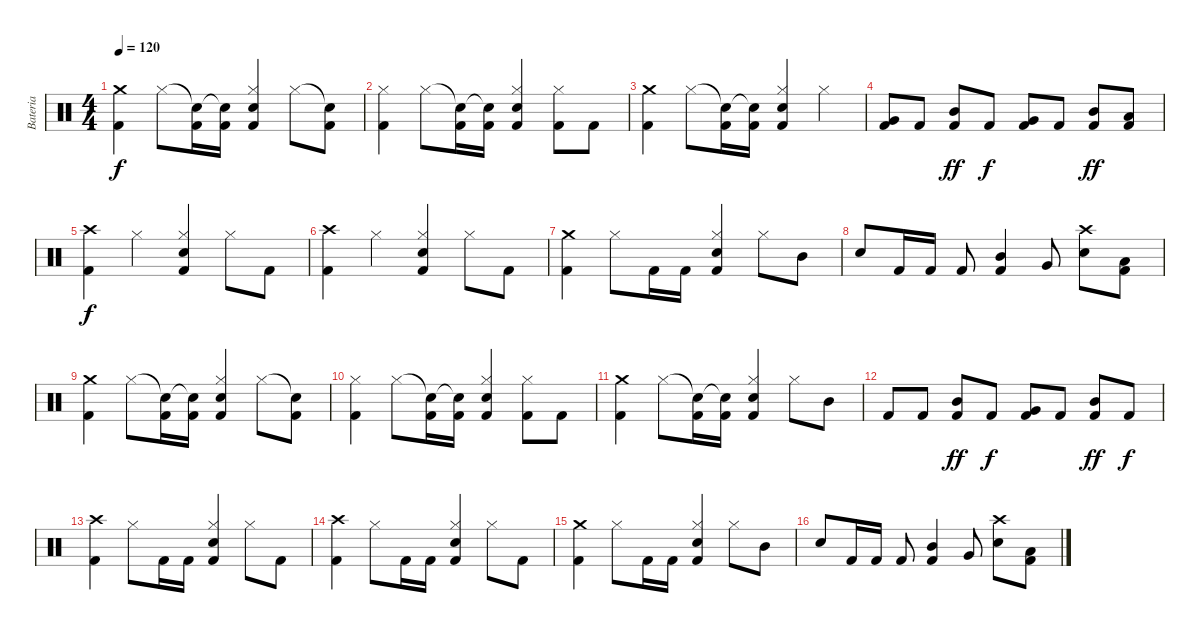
\track ("Bateria" "Bateria") {instrument percussion}
\staff {score}
\articulation defaults
\ts (4 4)
\tempo 120
\clef neutral
\ks c
("Crash medium (hit)" "Kick (hit) 2").4{dy f} "Hi-Hat (closed)".8 ("Snare (hit)"{t} "Kick (hit) 2").16 ("Snare (hit)"{t} "Kick (hit) 2").16 ("Hi-Hat (closed)" "Electric Snare (hit)" "Kick (hit) 2").4 "Hi-Hat (closed)".8 ("Snare (hit)"{t} "Kick (hit) 2").8 |
("Hi-Hat (closed)" "Kick (hit) 2").4 "Hi-Hat (closed)".8 ("Snare (hit)"{t} "Kick (hit) 2").16 ("Snare (hit)"{t} "Kick (hit) 2").16 ("Hi-Hat (closed)" "Electric Snare (hit)" "Kick (hit) 2").4 ("Hi-Hat (closed)" "Kick (hit) 2").8 "Kick (hit) 2".8 |
("Crash medium (hit)" "Kick (hit) 2").4 "Hi-Hat (closed)".8 ("Snare (hit)"{t} "Kick (hit) 2").16 ("Snare (hit)"{t} "Kick (hit) 2").16 ("Hi-Hat (closed)" "Electric Snare (hit)" "Kick (hit) 2").4 "Hi-Hat (closed)".4 |
("Very Low Tom (hit)" "Kick (hit) 2").8 "Kick (hit) 2".8 ("Mid Tom (hit)" "Kick (hit) 2").8{dy ff} "Kick (hit) 2".8{dy f} ("Very Low Tom (hit)" "Kick (hit) 2").8 "Kick (hit) 2".8 ("Mid Tom (hit)" "Kick (hit) 2").8{dy ff} ("Low Tom (hit)" "Kick (hit) 2").8 |
("Crash high (hit)" "Kick (hit) 2").4{dy f} "Hi-Hat (closed)".4 ("Hi-Hat (closed)" "Electric Snare (hit)" "Kick (hit) 2").4 "Hi-Hat (closed)".8 "Kick (hit) 2".8 |
("Crash high (hit)" "Kick (hit) 2").4 "Hi-Hat (closed)".4 ("Hi-Hat (closed)" "Electric Snare (hit)" "Kick (hit) 2").4 "Hi-Hat (closed)".8 "Kick (hit) 2".8 |
("Crash medium (hit)" "Kick (hit) 2").4 "Hi-Hat (closed)".8 "Kick (hit) 2".16 "Kick (hit) 2".16 ("Hi-Hat (closed)" "Electric Snare (hit)" "Kick (hit) 2").4 "Hi-Hat (closed)".8 "Mid Tom (hit)".8 |
"Electric Snare (hit)".8 "Kick (hit) 2".16 "Kick (hit) 2".16 "Kick (hit) 2".8 ("Mid Tom (hit)" "Kick (hit) 2").4 "Very Low Tom (hit)".8 ("Crash high (hit)" "Electric Snare (hit)").8 ("Low Tom (hit)" "Kick (hit) 2").8 |
("Crash medium (hit)" "Kick (hit) 2").4 "Hi-Hat (closed)".8 ("Snare (hit)"{t} "Kick (hit) 2").16 ("Snare (hit)"{t} "Kick (hit) 2").16 ("Hi-Hat (closed)" "Electric Snare (hit)" "Kick (hit) 2").4 "Hi-Hat (closed)".8 ("Snare (hit)"{t} "Kick (hit) 2").8 |
("Hi-Hat (closed)" "Kick (hit) 2").4 "Hi-Hat (closed)".8 ("Snare (hit)"{t} "Kick (hit) 2").16 ("Snare (hit)"{t} "Kick (hit) 2").16 ("Hi-Hat (closed)" "Electric Snare (hit)" "Kick (hit) 2").4 ("Hi-Hat (closed)" "Kick (hit) 2").8 "Kick (hit) 2".8 |
("Crash medium (hit)" "Kick (hit) 2").4 "Hi-Hat (closed)".8 ("Snare (hit)"{t} "Kick (hit) 2").16 ("Snare (hit)"{t} "Kick (hit) 2").16 ("Hi-Hat (closed)" "Electric Snare (hit)" "Kick (hit) 2").4 "Hi-Hat (closed)".8 "Mid Tom (hit)".8 |
"Kick (hit) 2".8 "Kick (hit) 2".8 ("Mid Tom (hit)" "Kick (hit) 2").8{dy ff} "Kick (hit) 2".8{dy f} ("Very Low Tom (hit)" "Kick (hit) 2").8 "Kick (hit) 2".8 ("Mid Tom (hit)" "Kick (hit) 2").8{dy ff} "Kick (hit) 2".8{dy f} |
("Crash high (hit)" "Kick (hit) 2").4 "Hi-Hat (closed)".8 "Kick (hit) 2".16 "Kick (hit) 2".16 ("Hi-Hat (closed)" "Electric Snare (hit)" "Kick (hit) 2").4 "Hi-Hat (closed)".8 "Kick (hit) 2".8 |
("Crash high (hit)" "Kick (hit) 2").4 "Hi-Hat (closed)".8 "Kick (hit) 2".16 "Kick (hit) 2".16 ("Hi-Hat (closed)" "Electric Snare (hit)" "Kick (hit) 2").4 "Hi-Hat (closed)".8 "Kick (hit) 2".8 |
("Crash medium (hit)" "Kick (hit) 2").4 "Hi-Hat (closed)".8 "Kick (hit) 2".16 "Kick (hit) 2".16 ("Hi-Hat (closed)" "Electric Snare (hit)" "Kick (hit) 2").4 "Hi-Hat (closed)".8 "Mid Tom (hit)".8 |
"Electric Snare (hit)".8 "Kick (hit) 2".16 "Kick (hit) 2".16 "Kick (hit) 2".8 ("Mid Tom (hit)" "Kick (hit) 2").4 "Very Low Tom (hit)".8 ("Crash high (hit)" "Electric Snare (hit)").8 ("Low Tom (hit)" "Kick (hit) 2").8
